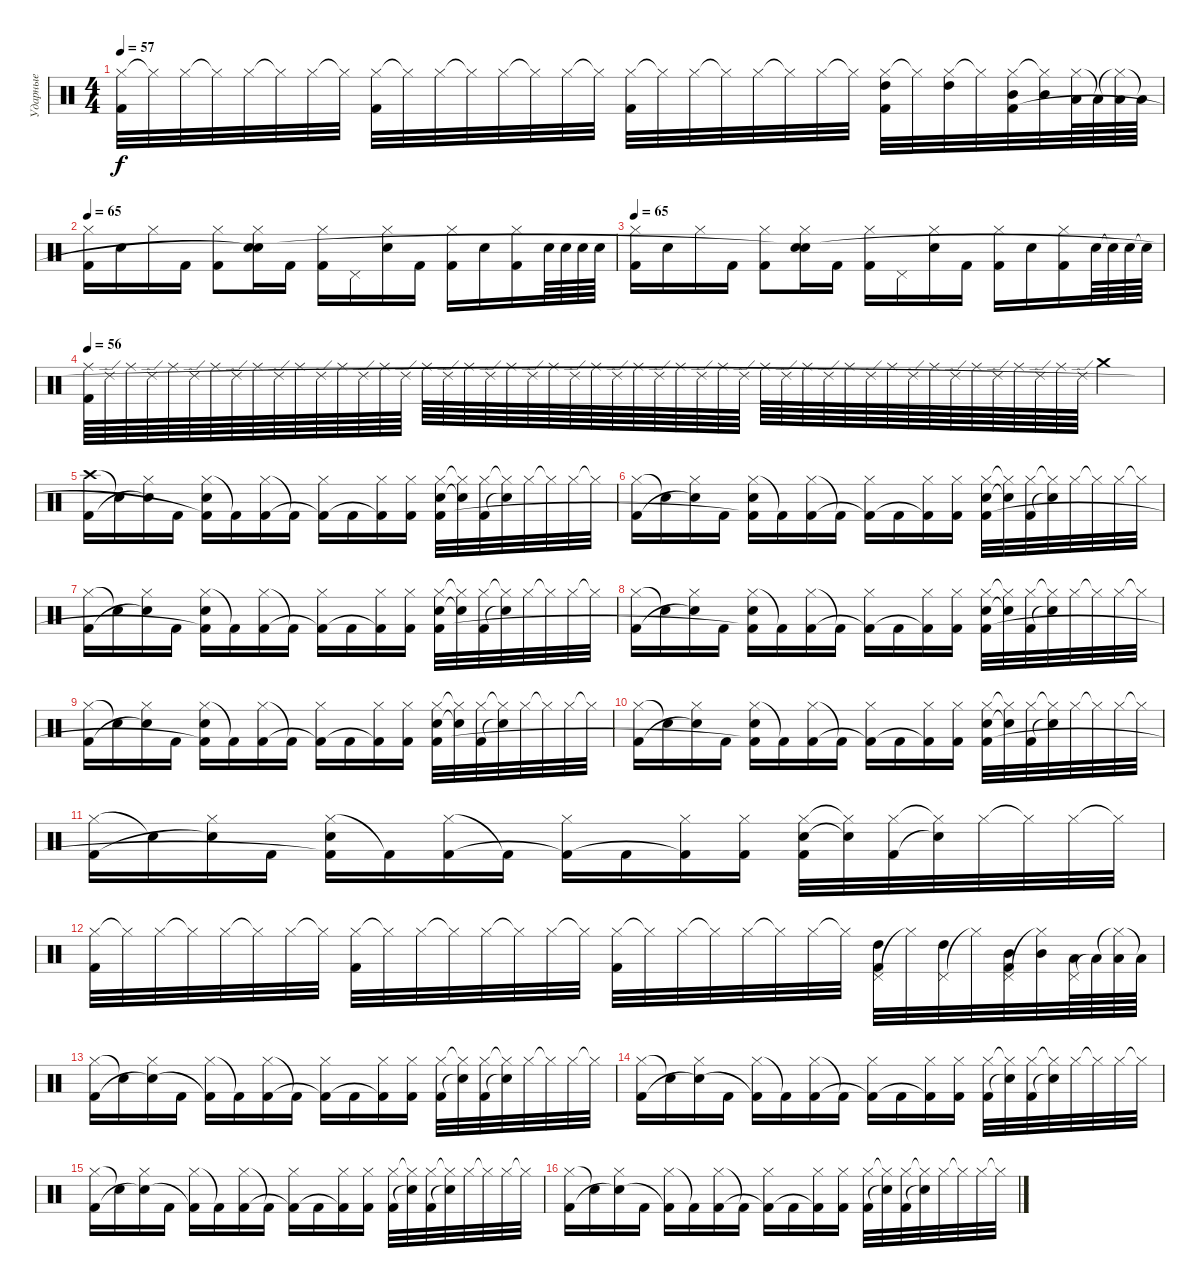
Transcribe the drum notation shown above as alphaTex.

\track ("Ударные" "Ударные") {instrument percussion}
\staff {score}
\articulation defaults
\ts (4 4)
\tempo 57
\clef neutral
\ks c
("Hi-Hat (closed)" "Kick (hit) 2").32{dy f} "Hi-Hat (closed)"{t}.32 "Hi-Hat (closed)".32 "Hi-Hat (closed)"{t}.32 "Hi-Hat (closed)".32 "Hi-Hat (closed)"{t}.32 "Hi-Hat (closed)".32 "Hi-Hat (closed)"{t}.32 ("Hi-Hat (closed)" "Kick (hit) 2").32 "Hi-Hat (closed)"{t}.32 "Hi-Hat (closed)".32 "Hi-Hat (closed)"{t}.32 "Hi-Hat (closed)".32 "Hi-Hat (closed)"{t}.32 "Hi-Hat (closed)".32 "Hi-Hat (closed)"{t}.32 ("Hi-Hat (closed)" "Kick (hit) 2").32 "Hi-Hat (closed)"{t}.32 "Hi-Hat (closed)".32 "Hi-Hat (closed)"{t}.32 "Hi-Hat (closed)".32 "Hi-Hat (closed)"{t}.32 "Hi-Hat (closed)".32 "Hi-Hat (closed)"{t}.32 ("Hi-Hat (closed)" "High Tom (hit)" "Kick (hit) 2").32 "Hi-Hat (closed)"{t}.32 ("Hi-Hat (closed)" "High Tom (hit)").32 "Hi-Hat (closed)"{t}.32 ("Hi-Hat (closed)" "Mid Tom (hit)" "Kick (hit) 2").32 ("Hi-Hat (closed)"{t} "Mid Tom (hit)").32 ("Hi-Hat (closed)" "Low Tom (hit)").64 "Low Tom (hit)"{t}.64 ("Hi-Hat (closed)"{t} "Low Tom (hit)").64 "Low Tom (hit)"{t}.64 |
\tempo 65
("Hi-Hat (closed)" "Kick (hit) 2").16 "Snare (hit) 2".16 "Hi-Hat (closed)".16 "Kick (hit) 2".16 ("Hi-Hat (closed)" "Kick (hit) 2").8 ("Hi-Hat (closed)" "Snare (hit) 2" "Snare (hit)"{t}).16 "Kick (hit) 2".16 ("Hi-Hat (closed)" "Kick (hit) 2").16 "Pedal Hi-Hat (hit)".16 ("Hi-Hat (closed)" "Snare (hit) 2").16 "Kick (hit) 2".16 ("Hi-Hat (closed)" "Kick (hit) 2").16 "Snare (hit) 2".16 ("Hi-Hat (closed)" "Kick (hit) 2").16 "Snare (hit) 2".64 "Snare (hit) 2".64 "Snare (hit) 2".64 "Snare (hit) 2".64 |
\tempo 65
("Hi-Hat (closed)" "Kick (hit) 2").16 "Snare (hit) 2".16 "Hi-Hat (closed)".16 "Kick (hit) 2".16 ("Hi-Hat (closed)" "Kick (hit) 2").8 ("Hi-Hat (closed)" "Snare (hit) 2" "Snare (hit)"{t}).16 "Kick (hit) 2".16 ("Hi-Hat (closed)" "Kick (hit) 2").16 "Pedal Hi-Hat (hit)".16 ("Hi-Hat (closed)" "Snare (hit) 2").16 "Kick (hit) 2".16 ("Hi-Hat (closed)" "Kick (hit) 2").16 "Snare (hit) 2".16 ("Hi-Hat (closed)" "Kick (hit) 2").16 "Snare (hit) 2".64 "Snare (hit) 2"{t}.64 "Snare (hit) 2".64 "Snare (hit) 2"{t}.64 |
\tempo 56
("Ride (middle)" "Kick (hit) 2").64 "Ride (edge) 2".64 "Ride (middle)".64 "Ride (edge) 2".64 "Ride (middle)".64 "Ride (edge) 2".64 "Ride (middle)".64 "Ride (edge) 2".64 "Ride (middle)".64 "Ride (edge) 2".64 "Ride (middle)".64 "Ride (edge) 2".64 "Ride (middle)".64 "Ride (edge) 2".64 "Ride (middle)".64 "Ride (edge) 2".64 "Ride (middle)".64 "Ride (edge) 2".64 "Ride (middle)".64 "Ride (edge) 2".64 "Ride (middle)".64 "Ride (edge) 2".64 "Ride (middle)".64 "Ride (edge) 2".64 "Ride (middle)".64 "Ride (edge) 2".64 "Ride (middle)".64 "Ride (edge) 2".64 "Ride (middle)".64 "Ride (edge) 2".64 "Ride (middle)".64 "Ride (edge) 2".64 "Ride (middle)".64 "Ride (edge) 2".64 "Ride (middle)".64 "Ride (edge) 2".64 "Ride (middle)".64 "Ride (edge) 2".64 "Ride (middle)".64 "Ride (edge) 2".64 "Ride (middle)".64 "Ride (edge) 2".64 "Ride (middle)".64 "Ride (edge) 2".64 "Ride (middle)".64 "Ride (edge) 2".64 "Ride (middle)".64 "Ride (edge) 2".64 "Crash medium (hit)".4 |
("Crash high (hit)" "Kick (hit) 2").16 "Snare (hit)"{t}.16 ("Hi-Hat (closed)" "Snare (hit)"{t}).16 "Kick (hit) 2".16 ("Hi-Hat (closed)" "Snare (hit) 2" "Kick (hit) 2"{t}).16 "Kick (hit) 2"{t}.16 ("Hi-Hat (closed)" "Kick (hit) 2").16 "Kick (hit) 2"{t}.16 ("Hi-Hat (closed)" "Kick (hit) 2"{t}).16 "Kick (hit) 2".16 ("Hi-Hat (closed)" "Kick (hit) 2"{t}).16 ("Hi-Hat (closed)" "Kick (hit) 2").16 ("Hi-Hat (closed)" "Snare (hit) 2" "Kick (hit) 2").32 ("Hi-Hat (closed)"{t} "Snare (hit)"{t}).32 ("Hi-Hat (closed)" "Kick (hit) 2").32 ("Hi-Hat (closed)"{t} "Snare (hit)"{t}).32 "Hi-Hat (closed)".32 "Hi-Hat (closed)"{t}.32 "Hi-Hat (closed)".32 "Hi-Hat (closed)"{t}.32 |
("Hi-Hat (closed)" "Kick (hit) 2").16 "Snare (hit)"{t}.16 ("Hi-Hat (closed)" "Snare (hit)"{t}).16 "Kick (hit) 2".16 ("Hi-Hat (closed)" "Snare (hit) 2" "Kick (hit) 2"{t}).16 "Kick (hit) 2"{t}.16 ("Hi-Hat (closed)" "Kick (hit) 2").16 "Kick (hit) 2"{t}.16 ("Hi-Hat (closed)" "Kick (hit) 2"{t}).16 "Kick (hit) 2".16 ("Hi-Hat (closed)" "Kick (hit) 2"{t}).16 ("Hi-Hat (closed)" "Kick (hit) 2").16 ("Hi-Hat (closed)" "Snare (hit) 2" "Kick (hit) 2").32 ("Hi-Hat (closed)"{t} "Snare (hit)"{t}).32 ("Hi-Hat (closed)" "Kick (hit) 2").32 ("Hi-Hat (closed)"{t} "Snare (hit)"{t}).32 "Hi-Hat (closed)".32 "Hi-Hat (closed)"{t}.32 "Hi-Hat (closed)".32 "Hi-Hat (closed)"{t}.32 |
("Hi-Hat (closed)" "Kick (hit) 2").16 "Snare (hit)"{t}.16 ("Hi-Hat (closed)" "Snare (hit)"{t}).16 "Kick (hit) 2".16 ("Hi-Hat (closed)" "Snare (hit) 2" "Kick (hit) 2"{t}).16 "Kick (hit) 2"{t}.16 ("Hi-Hat (closed)" "Kick (hit) 2").16 "Kick (hit) 2"{t}.16 ("Hi-Hat (closed)" "Kick (hit) 2"{t}).16 "Kick (hit) 2".16 ("Hi-Hat (closed)" "Kick (hit) 2"{t}).16 ("Hi-Hat (closed)" "Kick (hit) 2").16 ("Hi-Hat (closed)" "Snare (hit) 2" "Kick (hit) 2").32 ("Hi-Hat (closed)"{t} "Snare (hit)"{t}).32 ("Hi-Hat (closed)" "Kick (hit) 2").32 ("Hi-Hat (closed)"{t} "Snare (hit)"{t}).32 "Hi-Hat (closed)".32 "Hi-Hat (closed)"{t}.32 "Hi-Hat (closed)".32 "Hi-Hat (closed)"{t}.32 |
("Hi-Hat (closed)" "Kick (hit) 2").16 "Snare (hit)"{t}.16 ("Hi-Hat (closed)" "Snare (hit)"{t}).16 "Kick (hit) 2".16 ("Hi-Hat (closed)" "Snare (hit) 2" "Kick (hit) 2"{t}).16 "Kick (hit) 2"{t}.16 ("Hi-Hat (closed)" "Kick (hit) 2").16 "Kick (hit) 2"{t}.16 ("Hi-Hat (closed)" "Kick (hit) 2"{t}).16 "Kick (hit) 2".16 ("Hi-Hat (closed)" "Kick (hit) 2"{t}).16 ("Hi-Hat (closed)" "Kick (hit) 2").16 ("Hi-Hat (closed)" "Snare (hit) 2" "Kick (hit) 2").32 ("Hi-Hat (closed)"{t} "Snare (hit)"{t}).32 ("Hi-Hat (closed)" "Kick (hit) 2").32 ("Hi-Hat (closed)"{t} "Snare (hit)"{t}).32 "Hi-Hat (closed)".32 "Hi-Hat (closed)"{t}.32 "Hi-Hat (closed)".32 "Hi-Hat (closed)"{t}.32 |
("Hi-Hat (closed)" "Kick (hit) 2").16 "Snare (hit)"{t}.16 ("Hi-Hat (closed)" "Snare (hit)"{t}).16 "Kick (hit) 2".16 ("Hi-Hat (closed)" "Snare (hit) 2" "Kick (hit) 2"{t}).16 "Kick (hit) 2"{t}.16 ("Hi-Hat (closed)" "Kick (hit) 2").16 "Kick (hit) 2"{t}.16 ("Hi-Hat (closed)" "Kick (hit) 2"{t}).16 "Kick (hit) 2".16 ("Hi-Hat (closed)" "Kick (hit) 2"{t}).16 ("Hi-Hat (closed)" "Kick (hit) 2").16 ("Hi-Hat (closed)" "Snare (hit) 2" "Kick (hit) 2").32 ("Hi-Hat (closed)"{t} "Snare (hit)"{t}).32 ("Hi-Hat (closed)" "Kick (hit) 2").32 ("Hi-Hat (closed)"{t} "Snare (hit)"{t}).32 "Hi-Hat (closed)".32 "Hi-Hat (closed)"{t}.32 "Hi-Hat (closed)".32 "Hi-Hat (closed)"{t}.32 |
("Hi-Hat (closed)" "Kick (hit) 2").16 "Snare (hit)"{t}.16 ("Hi-Hat (closed)" "Snare (hit)"{t}).16 "Kick (hit) 2".16 ("Hi-Hat (closed)" "Snare (hit) 2" "Kick (hit) 2"{t}).16 "Kick (hit) 2"{t}.16 ("Hi-Hat (closed)" "Kick (hit) 2").16 "Kick (hit) 2"{t}.16 ("Hi-Hat (closed)" "Kick (hit) 2"{t}).16 "Kick (hit) 2".16 ("Hi-Hat (closed)" "Kick (hit) 2"{t}).16 ("Hi-Hat (closed)" "Kick (hit) 2").16 ("Hi-Hat (closed)" "Snare (hit) 2" "Kick (hit) 2").32 ("Hi-Hat (closed)"{t} "Snare (hit)"{t}).32 ("Hi-Hat (closed)" "Kick (hit) 2").32 ("Hi-Hat (closed)"{t} "Snare (hit)"{t}).32 "Hi-Hat (closed)".32 "Hi-Hat (closed)"{t}.32 "Hi-Hat (closed)".32 "Hi-Hat (closed)"{t}.32 |
("Hi-Hat (closed)" "Kick (hit) 2").16 "Snare (hit)"{t}.16 ("Hi-Hat (closed)" "Snare (hit)"{t}).16 "Kick (hit) 2".16 ("Hi-Hat (closed)" "Snare (hit) 2" "Kick (hit) 2"{t}).16 "Kick (hit) 2"{t}.16 ("Hi-Hat (closed)" "Kick (hit) 2").16 "Kick (hit) 2"{t}.16 ("Hi-Hat (closed)" "Kick (hit) 2"{t}).16 "Kick (hit) 2".16 ("Hi-Hat (closed)" "Kick (hit) 2"{t}).16 ("Hi-Hat (closed)" "Kick (hit) 2").16 ("Hi-Hat (closed)" "Snare (hit) 2" "Kick (hit) 2").32 ("Hi-Hat (closed)"{t} "Snare (hit)"{t}).32 ("Hi-Hat (closed)" "Kick (hit) 2").32 ("Hi-Hat (closed)"{t} "Snare (hit)"{t}).32 "Hi-Hat (closed)".32 "Hi-Hat (closed)"{t}.32 "Hi-Hat (closed)".32 "Hi-Hat (closed)"{t}.32 |
("Hi-Hat (closed)" "Kick (hit) 2").32 "Hi-Hat (closed)"{t}.32 "Hi-Hat (closed)".32 "Hi-Hat (closed)"{t}.32 "Hi-Hat (closed)".32 "Hi-Hat (closed)"{t}.32 "Hi-Hat (closed)".32 "Hi-Hat (closed)"{t}.32 ("Hi-Hat (closed)" "Kick (hit) 2").32 "Hi-Hat (closed)"{t}.32 "Hi-Hat (closed)".32 "Hi-Hat (closed)"{t}.32 "Hi-Hat (closed)".32 "Hi-Hat (closed)"{t}.32 "Hi-Hat (closed)".32 "Hi-Hat (closed)"{t}.32 ("Hi-Hat (closed)" "Kick (hit) 2").32 "Hi-Hat (closed)"{t}.32 "Hi-Hat (closed)".32 "Hi-Hat (closed)"{t}.32 "Hi-Hat (closed)".32 "Hi-Hat (closed)"{t}.32 "Hi-Hat (closed)".32 "Hi-Hat (closed)"{t}.32 ("Pedal Hi-Hat (hit)" "High Tom (hit)" "Kick (hit) 2").32 "Hi-Hat (closed)"{t}.32 ("Pedal Hi-Hat (hit)" "High Tom (hit)").32 "Hi-Hat (closed)"{t}.32 ("Pedal Hi-Hat (hit)" "Mid Tom (hit)" "Kick (hit) 2").32 ("Hi-Hat (closed)"{t} "Mid Tom (hit)").32 ("Pedal Hi-Hat (hit)" "Low Tom (hit)").64 "Low Tom (hit)"{t}.64 ("Hi-Hat (closed)"{t} "Low Tom (hit)").64 "Low Tom (hit)"{t}.64 |
("Hi-Hat (closed)" "Kick (hit) 2").16 "Snare (hit)"{t}.16 ("Hi-Hat (closed)" "Snare (hit)"{t}).16 "Kick (hit) 2".16 ("Hi-Hat (closed)" "Kick (hit) 2"{t}).16 "Kick (hit) 2"{t}.16 ("Hi-Hat (closed)" "Kick (hit) 2").16 "Kick (hit) 2"{t}.16 ("Hi-Hat (closed)" "Kick (hit) 2"{t}).16 "Kick (hit) 2".16 ("Hi-Hat (closed)" "Kick (hit) 2"{t}).16 ("Hi-Hat (closed)" "Kick (hit) 2").16 ("Hi-Hat (closed)" "Kick (hit) 2").32 ("Hi-Hat (closed)"{t} "Snare (hit)"{t}).32 ("Hi-Hat (closed)" "Kick (hit) 2").32 ("Hi-Hat (closed)"{t} "Snare (hit)"{t}).32 "Hi-Hat (closed)".32 "Hi-Hat (closed)"{t}.32 "Hi-Hat (closed)".32 "Hi-Hat (closed)"{t}.32 |
("Hi-Hat (closed)" "Kick (hit) 2").16 "Snare (hit)"{t}.16 ("Hi-Hat (closed)" "Snare (hit)"{t}).16 "Kick (hit) 2".16 ("Hi-Hat (closed)" "Kick (hit) 2"{t}).16 "Kick (hit) 2"{t}.16 ("Hi-Hat (closed)" "Kick (hit) 2").16 "Kick (hit) 2"{t}.16 ("Hi-Hat (closed)" "Kick (hit) 2"{t}).16 "Kick (hit) 2".16 ("Hi-Hat (closed)" "Kick (hit) 2"{t}).16 ("Hi-Hat (closed)" "Kick (hit) 2").16 ("Hi-Hat (closed)" "Kick (hit) 2").32 ("Hi-Hat (closed)"{t} "Snare (hit)"{t}).32 ("Hi-Hat (closed)" "Kick (hit) 2").32 ("Hi-Hat (closed)"{t} "Snare (hit)"{t}).32 "Hi-Hat (closed)".32 "Hi-Hat (closed)"{t}.32 "Hi-Hat (closed)".32 "Hi-Hat (closed)"{t}.32 |
("Hi-Hat (closed)" "Kick (hit) 2").16 "Snare (hit)"{t}.16 ("Hi-Hat (closed)" "Snare (hit)"{t}).16 "Kick (hit) 2".16 ("Hi-Hat (closed)" "Kick (hit) 2"{t}).16 "Kick (hit) 2"{t}.16 ("Hi-Hat (closed)" "Kick (hit) 2").16 "Kick (hit) 2"{t}.16 ("Hi-Hat (closed)" "Kick (hit) 2"{t}).16 "Kick (hit) 2".16 ("Hi-Hat (closed)" "Kick (hit) 2"{t}).16 ("Hi-Hat (closed)" "Kick (hit) 2").16 ("Hi-Hat (closed)" "Kick (hit) 2").32 ("Hi-Hat (closed)"{t} "Snare (hit)"{t}).32 ("Hi-Hat (closed)" "Kick (hit) 2").32 ("Hi-Hat (closed)"{t} "Snare (hit)"{t}).32 "Hi-Hat (closed)".32 "Hi-Hat (closed)"{t}.32 "Hi-Hat (closed)".32 "Hi-Hat (closed)"{t}.32 |
("Hi-Hat (closed)" "Kick (hit) 2").16 "Snare (hit)"{t}.16 ("Hi-Hat (closed)" "Snare (hit)"{t}).16 "Kick (hit) 2".16 ("Hi-Hat (closed)" "Kick (hit) 2"{t}).16 "Kick (hit) 2"{t}.16 ("Hi-Hat (closed)" "Kick (hit) 2").16 "Kick (hit) 2"{t}.16 ("Hi-Hat (closed)" "Kick (hit) 2"{t}).16 "Kick (hit) 2".16 ("Hi-Hat (closed)" "Kick (hit) 2"{t}).16 ("Hi-Hat (closed)" "Kick (hit) 2").16 ("Hi-Hat (closed)" "Kick (hit) 2").32 ("Hi-Hat (closed)"{t} "Snare (hit)"{t}).32 ("Hi-Hat (closed)" "Kick (hit) 2").32 ("Hi-Hat (closed)"{t} "Snare (hit)"{t}).32 "Hi-Hat (closed)".32 "Hi-Hat (closed)"{t}.32 "Hi-Hat (closed)".32 "Hi-Hat (closed)"{t}.32
